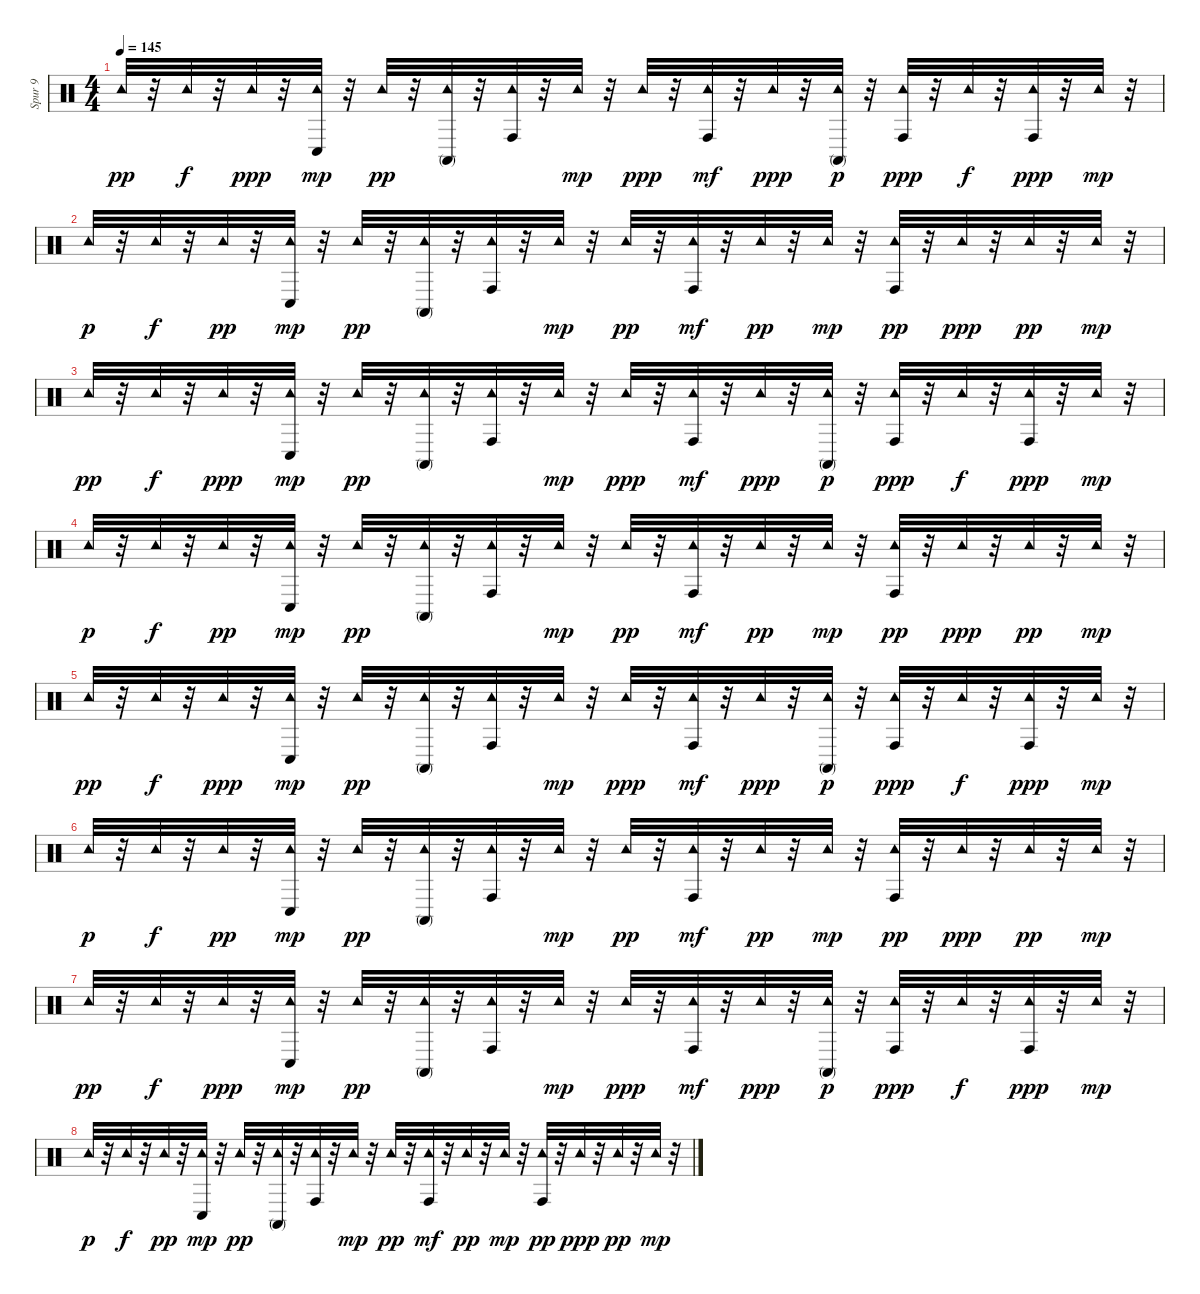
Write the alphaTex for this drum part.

\track ("Spur 9" "Spur 9") {instrument percussion}
\staff {score}
\articulation defaults
\ts (4 4)
\tempo 145
\clef neutral
\ks c "Tambourine (hit)".32{dy pp}
r.32 "Tambourine (hit)".32{dy f} r.32 "Tambourine (hit)".32{dy ppp} r.32 ("Tambourine (hit)" "Conga low (hit)").32{dy mp} r.32 "Tambourine (hit)".32{dy pp} r.32 ("Tambourine (hit)" "Conga high (mute)").32 r.32 ("Conga high (hit)" "Tambourine (hit)").32 r.32 "Tambourine (hit)".32{dy mp} r.32 "Tambourine (hit)".32{dy ppp} r.32 ("Tambourine (hit)" "Conga high (hit)").32{dy mf} r.32 "Tambourine (hit)".32{dy ppp} r.32 ("Tambourine (hit)" "Conga high (mute)").32{dy p} r.32 ("Conga high (hit)" "Tambourine (hit)").32{dy ppp} r.32 "Tambourine (hit)".32{dy f} r.32 ("Conga high (hit)" "Tambourine (hit)").32{dy ppp} r.32 "Tambourine (hit)".32{dy mp} r.32 |
"Tambourine (hit)".32{dy p} r.32 "Tambourine (hit)".32{dy f} r.32 "Tambourine (hit)".32{dy pp} r.32 ("Tambourine (hit)" "Conga low (hit)").32{dy mp} r.32 "Tambourine (hit)".32{dy pp} r.32 ("Tambourine (hit)" "Conga high (mute)").32 r.32 ("Conga high (hit)" "Tambourine (hit)").32 r.32 "Tambourine (hit)".32{dy mp} r.32 "Tambourine (hit)".32{dy pp} r.32 ("Tambourine (hit)" "Conga high (hit)").32{dy mf} r.32 "Tambourine (hit)".32{dy pp} r.32 "Tambourine (hit)".32{dy mp} r.32 ("Conga high (hit)" "Tambourine (hit)").32{dy pp} r.32 "Tambourine (hit)".32{dy ppp} r.32 "Tambourine (hit)".32{dy pp} r.32 "Tambourine (hit)".32{dy mp} r.32 |
"Tambourine (hit)".32{dy pp} r.32 "Tambourine (hit)".32{dy f} r.32 "Tambourine (hit)".32{dy ppp} r.32 ("Tambourine (hit)" "Conga low (hit)").32{dy mp} r.32 "Tambourine (hit)".32{dy pp} r.32 ("Tambourine (hit)" "Conga high (mute)").32 r.32 ("Conga high (hit)" "Tambourine (hit)").32 r.32 "Tambourine (hit)".32{dy mp} r.32 "Tambourine (hit)".32{dy ppp} r.32 ("Tambourine (hit)" "Conga high (hit)").32{dy mf} r.32 "Tambourine (hit)".32{dy ppp} r.32 ("Tambourine (hit)" "Conga high (mute)").32{dy p} r.32 ("Conga high (hit)" "Tambourine (hit)").32{dy ppp} r.32 "Tambourine (hit)".32{dy f} r.32 ("Conga high (hit)" "Tambourine (hit)").32{dy ppp} r.32 "Tambourine (hit)".32{dy mp} r.32 |
"Tambourine (hit)".32{dy p} r.32 "Tambourine (hit)".32{dy f} r.32 "Tambourine (hit)".32{dy pp} r.32 ("Tambourine (hit)" "Conga low (hit)").32{dy mp} r.32 "Tambourine (hit)".32{dy pp} r.32 ("Tambourine (hit)" "Conga high (mute)").32 r.32 ("Conga high (hit)" "Tambourine (hit)").32 r.32 "Tambourine (hit)".32{dy mp} r.32 "Tambourine (hit)".32{dy pp} r.32 ("Tambourine (hit)" "Conga high (hit)").32{dy mf} r.32 "Tambourine (hit)".32{dy pp} r.32 "Tambourine (hit)".32{dy mp} r.32 ("Conga high (hit)" "Tambourine (hit)").32{dy pp} r.32 "Tambourine (hit)".32{dy ppp} r.32 "Tambourine (hit)".32{dy pp} r.32 "Tambourine (hit)".32{dy mp} r.32 |
"Tambourine (hit)".32{dy pp} r.32 "Tambourine (hit)".32{dy f} r.32 "Tambourine (hit)".32{dy ppp} r.32 ("Tambourine (hit)" "Conga low (hit)").32{dy mp} r.32 "Tambourine (hit)".32{dy pp} r.32 ("Tambourine (hit)" "Conga high (mute)").32 r.32 ("Conga high (hit)" "Tambourine (hit)").32 r.32 "Tambourine (hit)".32{dy mp} r.32 "Tambourine (hit)".32{dy ppp} r.32 ("Tambourine (hit)" "Conga high (hit)").32{dy mf} r.32 "Tambourine (hit)".32{dy ppp} r.32 ("Tambourine (hit)" "Conga high (mute)").32{dy p} r.32 ("Conga high (hit)" "Tambourine (hit)").32{dy ppp} r.32 "Tambourine (hit)".32{dy f} r.32 ("Conga high (hit)" "Tambourine (hit)").32{dy ppp} r.32 "Tambourine (hit)".32{dy mp} r.32 |
"Tambourine (hit)".32{dy p} r.32 "Tambourine (hit)".32{dy f} r.32 "Tambourine (hit)".32{dy pp} r.32 ("Tambourine (hit)" "Conga low (hit)").32{dy mp} r.32 "Tambourine (hit)".32{dy pp} r.32 ("Tambourine (hit)" "Conga high (mute)").32 r.32 ("Conga high (hit)" "Tambourine (hit)").32 r.32 "Tambourine (hit)".32{dy mp} r.32 "Tambourine (hit)".32{dy pp} r.32 ("Tambourine (hit)" "Conga high (hit)").32{dy mf} r.32 "Tambourine (hit)".32{dy pp} r.32 "Tambourine (hit)".32{dy mp} r.32 ("Conga high (hit)" "Tambourine (hit)").32{dy pp} r.32 "Tambourine (hit)".32{dy ppp} r.32 "Tambourine (hit)".32{dy pp} r.32 "Tambourine (hit)".32{dy mp} r.32 |
"Tambourine (hit)".32{dy pp} r.32 "Tambourine (hit)".32{dy f} r.32 "Tambourine (hit)".32{dy ppp} r.32 ("Tambourine (hit)" "Conga low (hit)").32{dy mp} r.32 "Tambourine (hit)".32{dy pp} r.32 ("Tambourine (hit)" "Conga high (mute)").32 r.32 ("Conga high (hit)" "Tambourine (hit)").32 r.32 "Tambourine (hit)".32{dy mp} r.32 "Tambourine (hit)".32{dy ppp} r.32 ("Tambourine (hit)" "Conga high (hit)").32{dy mf} r.32 "Tambourine (hit)".32{dy ppp} r.32 ("Tambourine (hit)" "Conga high (mute)").32{dy p} r.32 ("Conga high (hit)" "Tambourine (hit)").32{dy ppp} r.32 "Tambourine (hit)".32{dy f} r.32 ("Conga high (hit)" "Tambourine (hit)").32{dy ppp} r.32 "Tambourine (hit)".32{dy mp} r.32 |
"Tambourine (hit)".32{dy p} r.32 "Tambourine (hit)".32{dy f} r.32 "Tambourine (hit)".32{dy pp} r.32 ("Tambourine (hit)" "Conga low (hit)").32{dy mp} r.32 "Tambourine (hit)".32{dy pp} r.32 ("Tambourine (hit)" "Conga high (mute)").32 r.32 ("Conga high (hit)" "Tambourine (hit)").32 r.32 "Tambourine (hit)".32{dy mp} r.32 "Tambourine (hit)".32{dy pp} r.32 ("Tambourine (hit)" "Conga high (hit)").32{dy mf} r.32 "Tambourine (hit)".32{dy pp} r.32 "Tambourine (hit)".32{dy mp} r.32 ("Conga high (hit)" "Tambourine (hit)").32{dy pp} r.32 "Tambourine (hit)".32{dy ppp} r.32 "Tambourine (hit)".32{dy pp} r.32 "Tambourine (hit)".32{dy mp} r.32
